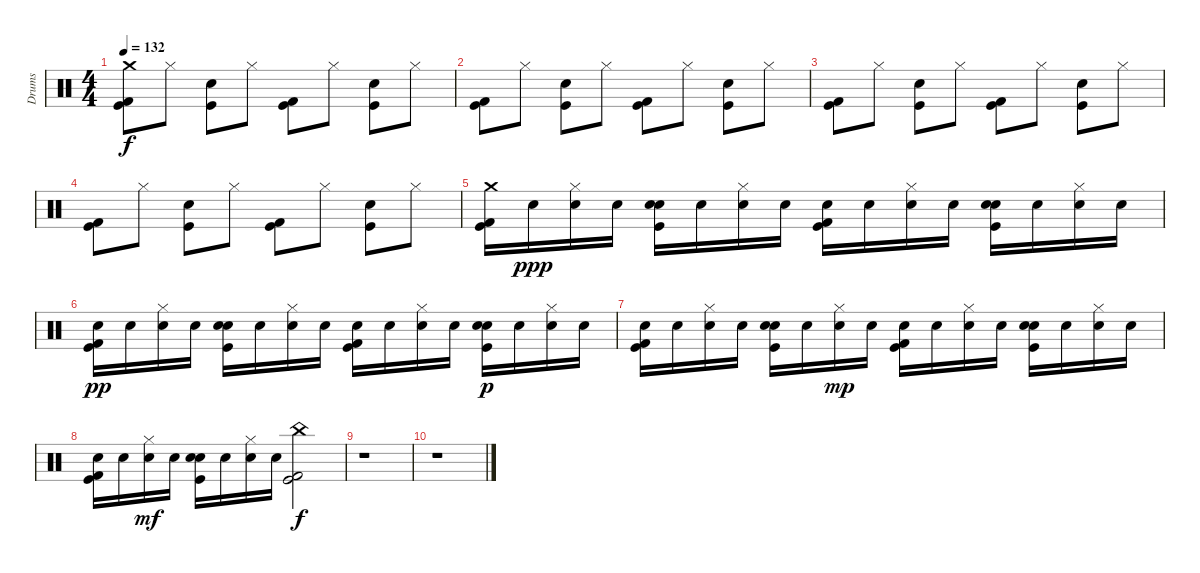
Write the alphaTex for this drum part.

\track ("Drums" "Drums") {instrument percussion}
\staff {score}
\articulation defaults
\ts (4 4)
\tempo 132
\clef neutral
\ks c
("Crash medium (hit)" "Kick (hit)" "Kick (hit) 2").8{dy f} "Hi-Hat (closed)".8 ("Hand Clap (hit)" "Kick (hit)").8 "Hi-Hat (closed)".8 ("Kick (hit) 2" "Kick (hit)").8 "Hi-Hat (closed)".8 ("Kick (hit)" "Hand Clap (hit)").8 "Hi-Hat (closed)".8 |
("Kick (hit) 2" "Kick (hit)").8 "Hi-Hat (closed)".8 ("Kick (hit)" "Hand Clap (hit)").8 "Hi-Hat (closed)".8 ("Kick (hit)" "Kick (hit) 2").8 "Hi-Hat (closed)".8 ("Kick (hit)" "Hand Clap (hit)").8 "Hi-Hat (closed)".8 |
("Kick (hit)" "Kick (hit) 2").8 "Hi-Hat (closed)".8 ("Hand Clap (hit)" "Kick (hit)").8 "Hi-Hat (closed)".8 ("Kick (hit)" "Kick (hit) 2").8 "Hi-Hat (closed)".8 ("Kick (hit)" "Hand Clap (hit)").8 "Hi-Hat (closed)".8 |
("Kick (hit)" "Kick (hit) 2").8 "Hi-Hat (closed)".8 ("Hand Clap (hit)" "Kick (hit)").8 "Hi-Hat (closed)".8 ("Kick (hit)" "Kick (hit) 2").8 "Hi-Hat (closed)".8 ("Kick (hit)" "Hand Clap (hit)").8 "Hi-Hat (closed)".8 |
("Crash medium (hit)" "Kick (hit)" "Kick (hit) 2").16 "Electric Snare (hit)".16{dy ppp} ("Electric Snare (hit)" "Hi-Hat (closed)").16 "Electric Snare (hit)".16 ("Electric Snare (hit)" "Hand Clap (hit)" "Kick (hit)").16 "Electric Snare (hit)".16 ("Electric Snare (hit)" "Hi-Hat (closed)").16 "Electric Snare (hit)".16 ("Electric Snare (hit)" "Kick (hit)" "Kick (hit) 2").16 "Electric Snare (hit)".16 ("Hi-Hat (closed)" "Electric Snare (hit)").16 "Electric Snare (hit)".16 ("Electric Snare (hit)" "Kick (hit)" "Hand Clap (hit)").16 "Electric Snare (hit)".16 ("Hi-Hat (closed)" "Electric Snare (hit)").16 "Electric Snare (hit)".16 |
("Electric Snare (hit)" "Kick (hit) 2" "Kick (hit)").16{dy pp} "Electric Snare (hit)".16 ("Electric Snare (hit)" "Hi-Hat (closed)").16 "Electric Snare (hit)".16 ("Electric Snare (hit)" "Kick (hit)" "Hand Clap (hit)").16 "Electric Snare (hit)".16 ("Electric Snare (hit)" "Hi-Hat (closed)").16 "Electric Snare (hit)".16 ("Kick (hit)" "Electric Snare (hit)" "Kick (hit) 2").16 "Electric Snare (hit)".16 ("Electric Snare (hit)" "Hi-Hat (closed)").16 "Electric Snare (hit)".16 ("Hand Clap (hit)" "Kick (hit)" "Electric Snare (hit)").16{dy p} "Electric Snare (hit)".16 ("Electric Snare (hit)" "Hi-Hat (closed)").16 "Electric Snare (hit)".16 |
("Kick (hit)" "Electric Snare (hit)" "Kick (hit) 2").16 "Electric Snare (hit)".16 ("Electric Snare (hit)" "Hi-Hat (closed)").16 "Electric Snare (hit)".16 ("Kick (hit)" "Hand Clap (hit)" "Electric Snare (hit)").16 "Electric Snare (hit)".16 ("Electric Snare (hit)" "Hi-Hat (closed)").16{dy mp} "Electric Snare (hit)".16 ("Kick (hit) 2" "Kick (hit)" "Electric Snare (hit)").16 "Electric Snare (hit)".16 ("Electric Snare (hit)" "Hi-Hat (closed)").16 "Electric Snare (hit)".16 ("Kick (hit)" "Hand Clap (hit)" "Electric Snare (hit)").16 "Electric Snare (hit)".16 ("Hi-Hat (closed)" "Electric Snare (hit)").16 "Electric Snare (hit)".16 |
("Kick (hit) 2" "Kick (hit)" "Electric Snare (hit)").16 "Electric Snare (hit)".16 ("Hi-Hat (closed)" "Electric Snare (hit)").16{dy mf} "Electric Snare (hit)".16 ("Kick (hit)" "Electric Snare (hit)" "Hand Clap (hit)").16 "Electric Snare (hit)".16 ("Hi-Hat (closed)" "Electric Snare (hit)").16 "Electric Snare (hit)".16 ("Kick (hit) 2" "Kick (hit)" "China (hit)").2{dy f} |
r.1 |
r.1
